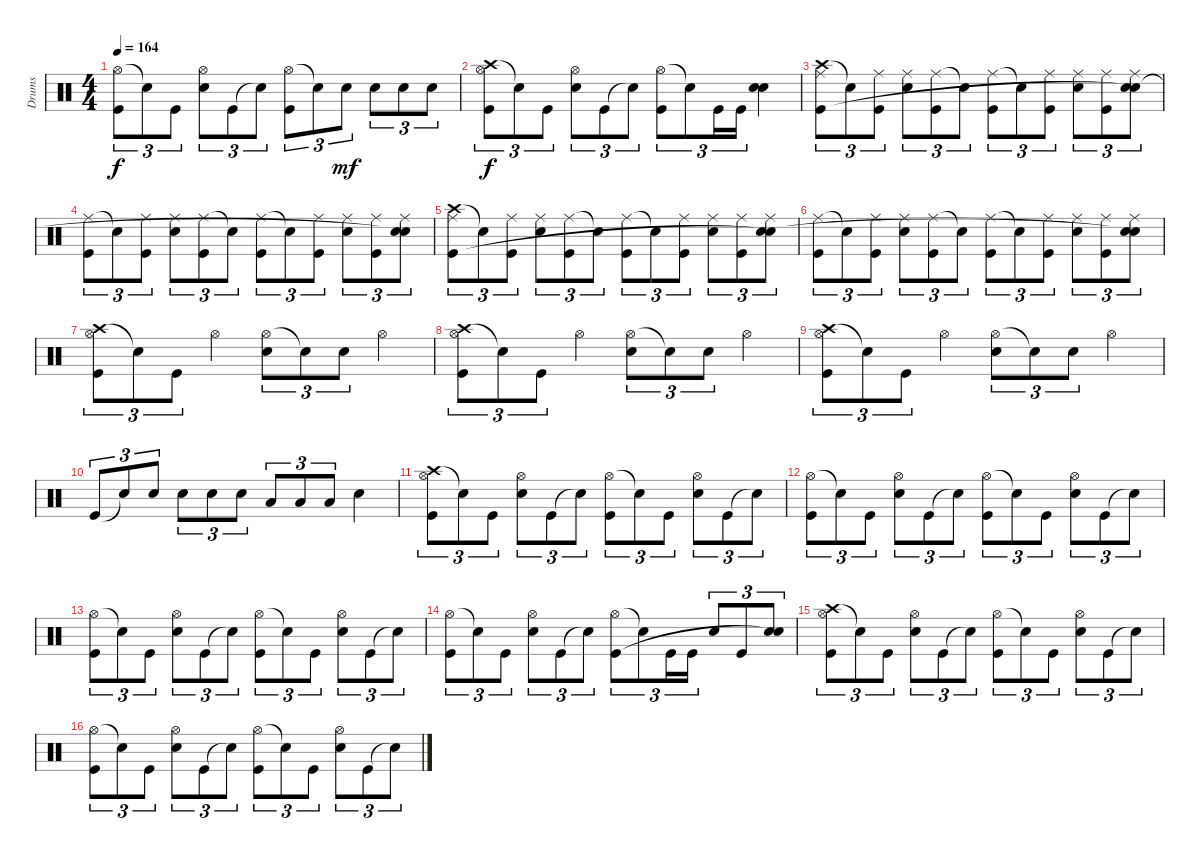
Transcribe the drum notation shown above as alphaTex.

\track ("Drums" "Drums") {instrument percussion}
\staff {score}
\articulation defaults
\ts (4 4)
\tempo 164
\clef neutral
\ks c
("Hi-Hat (open)" "Kick (hit)").8{tu (3 2) dy f} "Snare (hit)"{t}.8{tu (3 2)} "Kick (hit)".8{tu (3 2)} ("Hi-Hat (open)" "Electric Snare (hit)").8{tu (3 2)} "Kick (hit)".8{tu (3 2)} "Snare (hit)"{t}.8{tu (3 2)} ("Hi-Hat (open)" "Kick (hit)").8{tu (3 2)} "Snare (hit)"{t}.8{tu (3 2)} "Electric Snare (hit)".8{tu (3 2) dy mf} "Electric Snare (hit)".8{tu (3 2)} "Electric Snare (hit)".8{tu (3 2)} "Electric Snare (hit)".8{tu (3 2)} |
("Crash high (hit)" "Hi-Hat (open)" "Kick (hit)").8{tu (3 2) dy f} "Snare (hit)"{t}.8{tu (3 2)} "Kick (hit)".8{tu (3 2)} ("Hi-Hat (open)" "Electric Snare (hit)").8{tu (3 2)} "Kick (hit)".8{tu (3 2)} "Snare (hit)"{t}.8{tu (3 2)} ("Hi-Hat (open)" "Kick (hit)").8{tu (3 2)} "Snare (hit)"{t}.8{tu (3 2)} "Kick (hit)".16{tu (3 2)} "Kick (hit)".16{tu (3 2)} ("Electric Snare (hit)" "Snare (hit) 2").4 |
("Crash high (hit)" "Ride (middle)" "Kick (hit)").8{tu (3 2)} "Snare (hit)"{t}.8{tu (3 2)} ("Ride (middle)" "Kick (hit)").8{tu (3 2)} ("Ride (middle)" "Electric Snare (hit)").8{tu (3 2)} ("Ride (middle)" "Kick (hit)").8{tu (3 2)} "Snare (hit)"{t}.8{tu (3 2)} ("Ride (middle)" "Kick (hit)").8{tu (3 2)} "Snare (hit)"{t}.8{tu (3 2)} ("Ride (middle)" "Kick (hit)").8{tu (3 2)} ("Ride (middle)" "Electric Snare (hit)").8{tu (3 2)} ("Ride (middle)" "Kick (hit)").8{tu (3 2)} ("Ride (middle)" "Electric Snare (hit)" "Snare (hit)"{t}).8{tu (3 2)} |
("Ride (middle)" "Kick (hit)").8{tu (3 2)} "Snare (hit)"{t}.8{tu (3 2)} ("Ride (middle)" "Kick (hit)").8{tu (3 2)} ("Ride (middle)" "Electric Snare (hit)").8{tu (3 2)} ("Ride (middle)" "Kick (hit)").8{tu (3 2)} "Snare (hit)"{t}.8{tu (3 2)} ("Ride (middle)" "Kick (hit)").8{tu (3 2)} "Snare (hit)"{t}.8{tu (3 2)} ("Ride (middle)" "Kick (hit)").8{tu (3 2)} ("Ride (middle)" "Electric Snare (hit)").8{tu (3 2)} ("Ride (middle)" "Kick (hit)").8{tu (3 2)} ("Ride (middle)" "Electric Snare (hit)" "Snare (hit)"{t}).8{tu (3 2)} |
("Crash high (hit)" "Ride (middle)" "Kick (hit)").8{tu (3 2)} "Snare (hit)"{t}.8{tu (3 2)} ("Ride (middle)" "Kick (hit)").8{tu (3 2)} ("Ride (middle)" "Electric Snare (hit)").8{tu (3 2)} ("Ride (middle)" "Kick (hit)").8{tu (3 2)} "Snare (hit)"{t}.8{tu (3 2)} ("Ride (middle)" "Kick (hit)").8{tu (3 2)} "Snare (hit)"{t}.8{tu (3 2)} ("Ride (middle)" "Kick (hit)").8{tu (3 2)} ("Ride (middle)" "Electric Snare (hit)").8{tu (3 2)} ("Ride (middle)" "Kick (hit)").8{tu (3 2)} ("Ride (middle)" "Electric Snare (hit)" "Snare (hit)"{t}).8{tu (3 2)} |
("Ride (middle)" "Kick (hit)").8{tu (3 2)} "Snare (hit)"{t}.8{tu (3 2)} ("Ride (middle)" "Kick (hit)").8{tu (3 2)} ("Ride (middle)" "Electric Snare (hit)").8{tu (3 2)} ("Ride (middle)" "Kick (hit)").8{tu (3 2)} "Snare (hit)"{t}.8{tu (3 2)} ("Ride (middle)" "Kick (hit)").8{tu (3 2)} "Snare (hit)"{t}.8{tu (3 2)} ("Ride (middle)" "Kick (hit)").8{tu (3 2)} ("Ride (middle)" "Electric Snare (hit)").8{tu (3 2)} ("Ride (middle)" "Kick (hit)").8{tu (3 2)} ("Ride (middle)" "Electric Snare (hit)" "Snare (hit)"{t}).8{tu (3 2)} |
("Crash high (hit)" "Hi-Hat (open)" "Kick (hit)").8{tu (3 2)} "Snare (hit)"{t}.8{tu (3 2)} "Kick (hit)".8{tu (3 2)} "Hi-Hat (open)".4 ("Hi-Hat (open)" "Electric Snare (hit)").8{tu (3 2)} "Snare (hit)"{t}.8{tu (3 2)} "Electric Snare (hit)".8{tu (3 2)} "Hi-Hat (open)".4 |
("Crash high (hit)" "Hi-Hat (open)" "Kick (hit)").8{tu (3 2)} "Snare (hit)"{t}.8{tu (3 2)} "Kick (hit)".8{tu (3 2)} "Hi-Hat (open)".4 ("Hi-Hat (open)" "Electric Snare (hit)").8{tu (3 2)} "Snare (hit)"{t}.8{tu (3 2)} "Electric Snare (hit)".8{tu (3 2)} "Hi-Hat (open)".4 |
("Crash high (hit)" "Hi-Hat (open)" "Kick (hit)").8{tu (3 2)} "Snare (hit)"{t}.8{tu (3 2)} "Kick (hit)".8{tu (3 2)} "Hi-Hat (open)".4 ("Hi-Hat (open)" "Electric Snare (hit)").8{tu (3 2)} "Snare (hit)"{t}.8{tu (3 2)} "Electric Snare (hit)".8{tu (3 2)} "Hi-Hat (open)".4 |
"Kick (hit)".8{tu (3 2)} "Snare (hit)"{t}.8{tu (3 2)} "Electric Snare (hit)".8{tu (3 2)} "Electric Snare (hit)".8{tu (3 2)} "Electric Snare (hit)".8{tu (3 2)} "Electric Snare (hit)".8{tu (3 2)} "Low Tom (hit)".8{tu (3 2)} "Low Tom (hit)".8{tu (3 2)} "Low Tom (hit)".8{tu (3 2)} "Electric Snare (hit)".4 |
("Crash high (hit)" "Hi-Hat (open)" "Kick (hit)").8{tu (3 2)} "Snare (hit)"{t}.8{tu (3 2)} "Kick (hit)".8{tu (3 2)} ("Hi-Hat (open)" "Electric Snare (hit)").8{tu (3 2)} "Kick (hit)".8{tu (3 2)} "Snare (hit)"{t}.8{tu (3 2)} ("Hi-Hat (open)" "Kick (hit)").8{tu (3 2)} "Snare (hit)"{t}.8{tu (3 2)} "Kick (hit)".8{tu (3 2)} ("Hi-Hat (open)" "Electric Snare (hit)").8{tu (3 2)} "Kick (hit)".8{tu (3 2)} "Snare (hit)"{t}.8{tu (3 2)} |
("Hi-Hat (open)" "Kick (hit)").8{tu (3 2)} "Snare (hit)"{t}.8{tu (3 2)} "Kick (hit)".8{tu (3 2)} ("Hi-Hat (open)" "Electric Snare (hit)").8{tu (3 2)} "Kick (hit)".8{tu (3 2)} "Snare (hit)"{t}.8{tu (3 2)} ("Hi-Hat (open)" "Kick (hit)").8{tu (3 2)} "Snare (hit)"{t}.8{tu (3 2)} "Kick (hit)".8{tu (3 2)} ("Hi-Hat (open)" "Electric Snare (hit)").8{tu (3 2)} "Kick (hit)".8{tu (3 2)} "Snare (hit)"{t}.8{tu (3 2)} |
("Hi-Hat (open)" "Kick (hit)").8{tu (3 2)} "Snare (hit)"{t}.8{tu (3 2)} "Kick (hit)".8{tu (3 2)} ("Hi-Hat (open)" "Electric Snare (hit)").8{tu (3 2)} "Kick (hit)".8{tu (3 2)} "Snare (hit)"{t}.8{tu (3 2)} ("Hi-Hat (open)" "Kick (hit)").8{tu (3 2)} "Snare (hit)"{t}.8{tu (3 2)} "Kick (hit)".8{tu (3 2)} ("Hi-Hat (open)" "Electric Snare (hit)").8{tu (3 2)} "Kick (hit)".8{tu (3 2)} "Snare (hit)"{t}.8{tu (3 2)} |
("Hi-Hat (open)" "Kick (hit)").8{tu (3 2)} "Snare (hit)"{t}.8{tu (3 2)} "Kick (hit)".8{tu (3 2)} ("Hi-Hat (open)" "Electric Snare (hit)").8{tu (3 2)} "Kick (hit)".8{tu (3 2)} "Snare (hit)"{t}.8{tu (3 2)} ("Hi-Hat (open)" "Kick (hit)").8{tu (3 2)} "Snare (hit)"{t}.8{tu (3 2)} "Kick (hit)".16{tu (3 2)} "Kick (hit)".16{tu (3 2)} "Electric Snare (hit)".8{tu (3 2)} "Kick (hit)".8{tu (3 2)} ("Electric Snare (hit)" "Snare (hit)"{t}).8{tu (3 2)} |
("Crash high (hit)" "Hi-Hat (open)" "Kick (hit)").8{tu (3 2)} "Snare (hit)"{t}.8{tu (3 2)} "Kick (hit)".8{tu (3 2)} ("Hi-Hat (open)" "Electric Snare (hit)").8{tu (3 2)} "Kick (hit)".8{tu (3 2)} "Snare (hit)"{t}.8{tu (3 2)} ("Hi-Hat (open)" "Kick (hit)").8{tu (3 2)} "Snare (hit)"{t}.8{tu (3 2)} "Kick (hit)".8{tu (3 2)} ("Hi-Hat (open)" "Electric Snare (hit)").8{tu (3 2)} "Kick (hit)".8{tu (3 2)} "Snare (hit)"{t}.8{tu (3 2)} |
("Hi-Hat (open)" "Kick (hit)").8{tu (3 2)} "Snare (hit)"{t}.8{tu (3 2)} "Kick (hit)".8{tu (3 2)} ("Hi-Hat (open)" "Electric Snare (hit)").8{tu (3 2)} "Kick (hit)".8{tu (3 2)} "Snare (hit)"{t}.8{tu (3 2)} ("Hi-Hat (open)" "Kick (hit)").8{tu (3 2)} "Snare (hit)"{t}.8{tu (3 2)} "Kick (hit)".8{tu (3 2)} ("Hi-Hat (open)" "Electric Snare (hit)").8{tu (3 2)} "Kick (hit)".8{tu (3 2)} "Snare (hit)"{t}.8{tu (3 2)}
